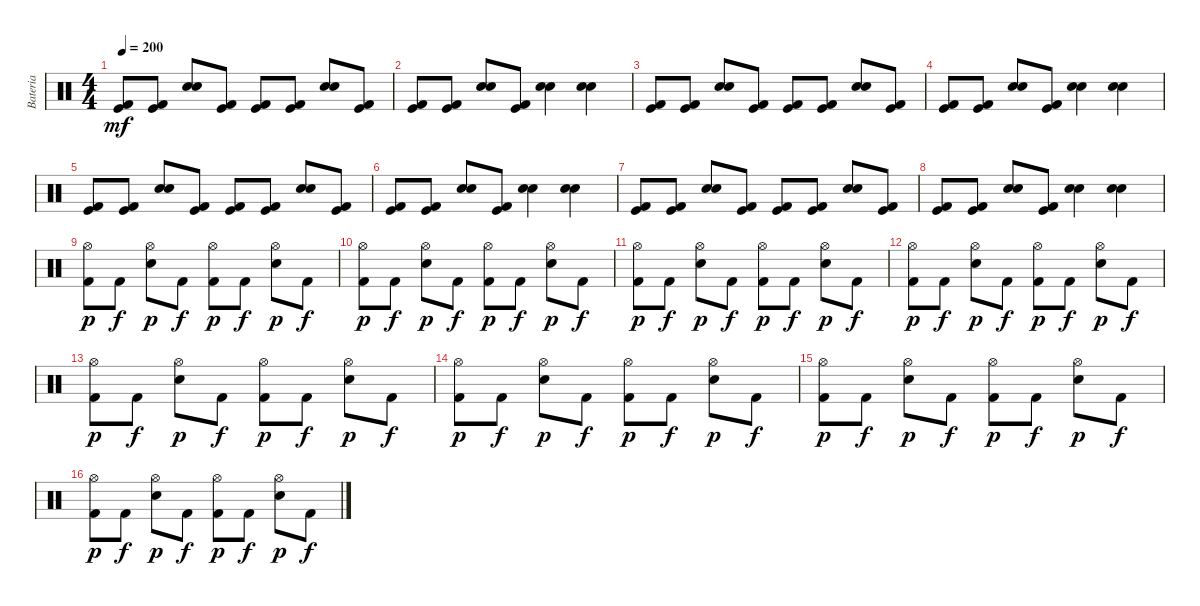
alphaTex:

\track ("Bateria" "Bateria") {instrument percussion}
\staff {score}
\articulation defaults
\ts (4 4)
\tempo 200
\clef neutral
\ks c
("Kick (hit)" "Kick (hit) 2").8{dy mf} ("Kick (hit)" "Kick (hit) 2").8 ("Electric Snare (hit)" "Snare (hit) 2").8 ("Kick (hit)" "Kick (hit) 2").8 ("Kick (hit)" "Kick (hit) 2").8 ("Kick (hit)" "Kick (hit) 2").8 ("Electric Snare (hit)" "Snare (hit) 2").8 ("Kick (hit)" "Kick (hit) 2").8 |
("Kick (hit)" "Kick (hit) 2").8 ("Kick (hit)" "Kick (hit) 2").8 ("Electric Snare (hit)" "Snare (hit) 2").8 ("Kick (hit)" "Kick (hit) 2").8 ("Electric Snare (hit)" "Snare (hit) 2").4 ("Electric Snare (hit)" "Snare (hit) 2").4 |
("Kick (hit)" "Kick (hit) 2").8 ("Kick (hit)" "Kick (hit) 2").8 ("Electric Snare (hit)" "Snare (hit) 2").8 ("Kick (hit)" "Kick (hit) 2").8 ("Kick (hit)" "Kick (hit) 2").8 ("Kick (hit)" "Kick (hit) 2").8 ("Electric Snare (hit)" "Snare (hit) 2").8 ("Kick (hit)" "Kick (hit) 2").8 |
("Kick (hit)" "Kick (hit) 2").8 ("Kick (hit)" "Kick (hit) 2").8 ("Electric Snare (hit)" "Snare (hit) 2").8 ("Kick (hit)" "Kick (hit) 2").8 ("Electric Snare (hit)" "Snare (hit) 2").4 ("Electric Snare (hit)" "Snare (hit) 2").4 |
("Kick (hit)" "Kick (hit) 2").8 ("Kick (hit)" "Kick (hit) 2").8 ("Electric Snare (hit)" "Snare (hit) 2").8 ("Kick (hit)" "Kick (hit) 2").8 ("Kick (hit)" "Kick (hit) 2").8 ("Kick (hit)" "Kick (hit) 2").8 ("Electric Snare (hit)" "Snare (hit) 2").8 ("Kick (hit)" "Kick (hit) 2").8 |
("Kick (hit)" "Kick (hit) 2").8 ("Kick (hit)" "Kick (hit) 2").8 ("Electric Snare (hit)" "Snare (hit) 2").8 ("Kick (hit)" "Kick (hit) 2").8 ("Electric Snare (hit)" "Snare (hit) 2").4 ("Electric Snare (hit)" "Snare (hit) 2").4 |
("Kick (hit)" "Kick (hit) 2").8 ("Kick (hit)" "Kick (hit) 2").8 ("Electric Snare (hit)" "Snare (hit) 2").8 ("Kick (hit)" "Kick (hit) 2").8 ("Kick (hit)" "Kick (hit) 2").8 ("Kick (hit)" "Kick (hit) 2").8 ("Electric Snare (hit)" "Snare (hit) 2").8 ("Kick (hit)" "Kick (hit) 2").8 |
("Kick (hit)" "Kick (hit) 2").8 ("Kick (hit)" "Kick (hit) 2").8 ("Electric Snare (hit)" "Snare (hit) 2").8 ("Kick (hit)" "Kick (hit) 2").8 ("Electric Snare (hit)" "Snare (hit) 2").4 ("Electric Snare (hit)" "Snare (hit) 2").4 |
("Kick (hit) 2" "Hi-Hat (open)").8{dy p} "Kick (hit) 2".8{dy f} ("Electric Snare (hit)" "Hi-Hat (open)").8{dy p} "Kick (hit) 2".8{dy f} ("Kick (hit) 2" "Hi-Hat (open)").8{dy p} "Kick (hit) 2".8{dy f} ("Electric Snare (hit)" "Hi-Hat (open)").8{dy p} "Kick (hit) 2".8{dy f} |
("Kick (hit) 2" "Hi-Hat (open)").8{dy p} "Kick (hit) 2".8{dy f} ("Electric Snare (hit)" "Hi-Hat (open)").8{dy p} "Kick (hit) 2".8{dy f} ("Kick (hit) 2" "Hi-Hat (open)").8{dy p} "Kick (hit) 2".8{dy f} ("Electric Snare (hit)" "Hi-Hat (open)").8{dy p} "Kick (hit) 2".8{dy f} |
("Kick (hit) 2" "Hi-Hat (open)").8{dy p} "Kick (hit) 2".8{dy f} ("Electric Snare (hit)" "Hi-Hat (open)").8{dy p} "Kick (hit) 2".8{dy f} ("Kick (hit) 2" "Hi-Hat (open)").8{dy p} "Kick (hit) 2".8{dy f} ("Electric Snare (hit)" "Hi-Hat (open)").8{dy p} "Kick (hit) 2".8{dy f} |
("Kick (hit) 2" "Hi-Hat (open)").8{dy p} "Kick (hit) 2".8{dy f} ("Electric Snare (hit)" "Hi-Hat (open)").8{dy p} "Kick (hit) 2".8{dy f} ("Kick (hit) 2" "Hi-Hat (open)").8{dy p} "Kick (hit) 2".8{dy f} ("Electric Snare (hit)" "Hi-Hat (open)").8{dy p} "Kick (hit) 2".8{dy f} |
("Kick (hit) 2" "Hi-Hat (open)").8{dy p} "Kick (hit) 2".8{dy f} ("Electric Snare (hit)" "Hi-Hat (open)").8{dy p} "Kick (hit) 2".8{dy f} ("Kick (hit) 2" "Hi-Hat (open)").8{dy p} "Kick (hit) 2".8{dy f} ("Electric Snare (hit)" "Hi-Hat (open)").8{dy p} "Kick (hit) 2".8{dy f} |
("Kick (hit) 2" "Hi-Hat (open)").8{dy p} "Kick (hit) 2".8{dy f} ("Electric Snare (hit)" "Hi-Hat (open)").8{dy p} "Kick (hit) 2".8{dy f} ("Kick (hit) 2" "Hi-Hat (open)").8{dy p} "Kick (hit) 2".8{dy f} ("Electric Snare (hit)" "Hi-Hat (open)").8{dy p} "Kick (hit) 2".8{dy f} |
("Kick (hit) 2" "Hi-Hat (open)").8{dy p} "Kick (hit) 2".8{dy f} ("Electric Snare (hit)" "Hi-Hat (open)").8{dy p} "Kick (hit) 2".8{dy f} ("Kick (hit) 2" "Hi-Hat (open)").8{dy p} "Kick (hit) 2".8{dy f} ("Electric Snare (hit)" "Hi-Hat (open)").8{dy p} "Kick (hit) 2".8{dy f} |
("Kick (hit) 2" "Hi-Hat (open)").8{dy p} "Kick (hit) 2".8{dy f} ("Electric Snare (hit)" "Hi-Hat (open)").8{dy p} "Kick (hit) 2".8{dy f} ("Kick (hit) 2" "Hi-Hat (open)").8{dy p} "Kick (hit) 2".8{dy f} ("Electric Snare (hit)" "Hi-Hat (open)").8{dy p} "Kick (hit) 2".8{dy f}
